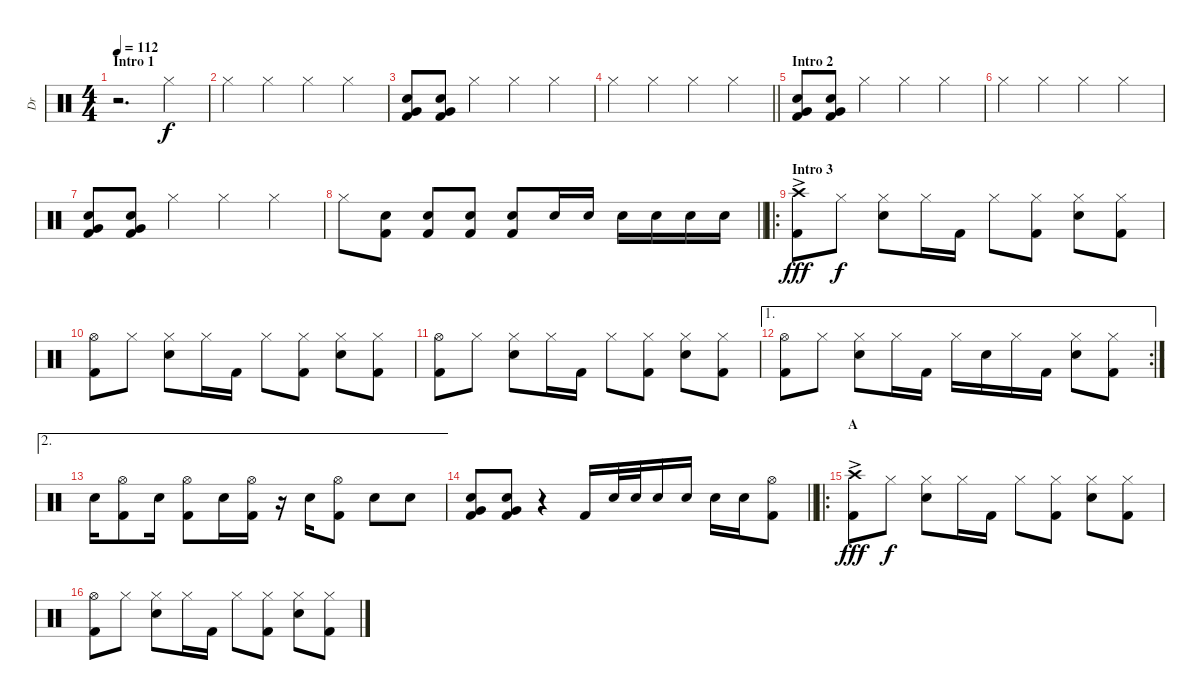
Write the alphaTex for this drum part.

\track ("Dr" "Dr") {instrument percussion}
\staff {score}
\articulation defaults
\ts (4 4)
\section ("" "Intro 1")
\tempo 112
\clef neutral
\ks c
r.2{d dy f} "Hi-Hat (closed)".4 |
"Hi-Hat (closed)".4 "Hi-Hat (closed)".4 "Hi-Hat (closed)".4 "Hi-Hat (closed)".4 |
("Electric Snare (hit)" "Very Low Tom (hit)" "Kick (hit) 2").8 ("Electric Snare (hit)" "Very Low Tom (hit)" "Kick (hit) 2").8 "Hi-Hat (closed)".4 "Hi-Hat (closed)".4 "Hi-Hat (closed)".4 |
\barLineRight lightlight "Hi-Hat (closed)".4 "Hi-Hat (closed)".4 "Hi-Hat (closed)".4 "Hi-Hat (closed)".4
|
\section ("" "Intro 2")
("Electric Snare (hit)" "Very Low Tom (hit)" "Kick (hit) 2").8 ("Electric Snare (hit)" "Very Low Tom (hit)" "Kick (hit) 2").8 "Hi-Hat (closed)".4 "Hi-Hat (closed)".4 "Hi-Hat (closed)".4 |
"Hi-Hat (closed)".4 "Hi-Hat (closed)".4 "Hi-Hat (closed)".4 "Hi-Hat (closed)".4 |
("Electric Snare (hit)" "Very Low Tom (hit)" "Kick (hit) 2").8 ("Electric Snare (hit)" "Very Low Tom (hit)" "Kick (hit) 2").8 "Hi-Hat (closed)".4 "Hi-Hat (closed)".4 "Hi-Hat (closed)".4 |
\barLineRight lightlight "Hi-Hat (closed)".8
("Electric Snare (hit)" "Kick (hit) 2").8 ("Electric Snare (hit)" "Kick (hit) 2").8 ("Electric Snare (hit)" "Kick (hit) 2").8 ("Electric Snare (hit)" "Kick (hit) 2").8 "Electric Snare (hit)".16 "Electric Snare (hit)".16 "Electric Snare (hit)".16 "Electric Snare (hit)".16 "Electric Snare (hit)".16 "Electric Snare (hit)".16 |
\ro
\section ("" "Intro 3")
("Crash high (hit)"{ac} "Kick (hit) 2"{ac}).8{dy fff} "Hi-Hat (closed)".8{dy f} ("Hi-Hat (closed)" "Electric Snare (hit)").8 "Hi-Hat (closed)".16 "Kick (hit) 2".16 "Hi-Hat (closed)".8 ("Hi-Hat (closed)" "Kick (hit) 2").8 ("Hi-Hat (closed)" "Electric Snare (hit)").8 ("Hi-Hat (closed)" "Kick (hit) 2").8 |
("Hi-Hat (open)" "Kick (hit) 2").8 "Hi-Hat (closed)".8 ("Hi-Hat (closed)" "Electric Snare (hit)").8 "Hi-Hat (closed)".16 "Kick (hit) 2".16 "Hi-Hat (closed)".8 ("Hi-Hat (closed)" "Kick (hit) 2").8 ("Hi-Hat (closed)" "Electric Snare (hit)").8 ("Hi-Hat (closed)" "Kick (hit) 2").8 |
("Hi-Hat (open)" "Kick (hit) 2").8 "Hi-Hat (closed)".8 ("Hi-Hat (closed)" "Electric Snare (hit)").8 "Hi-Hat (closed)".16 "Kick (hit) 2".16 "Hi-Hat (closed)".8 ("Hi-Hat (closed)" "Kick (hit) 2").8 ("Hi-Hat (closed)" "Electric Snare (hit)").8 ("Hi-Hat (closed)" "Kick (hit) 2").8 |
\ae 1
\rc 2
("Hi-Hat (open)" "Kick (hit) 2").8 "Hi-Hat (closed)".8 ("Hi-Hat (closed)" "Electric Snare (hit)").8 "Hi-Hat (closed)".16 "Kick (hit) 2".16 "Hi-Hat (closed)".16 "Electric Snare (hit)".16 "Hi-Hat (closed)".16 "Kick (hit) 2".16 ("Hi-Hat (closed)" "Electric Snare (hit)").8 ("Hi-Hat (closed)" "Kick (hit) 2").8 |
\ae 2 "Electric Snare (hit)".16
("Hi-Hat (open)" "Kick (hit) 2").8 "Electric Snare (hit)".16 ("Hi-Hat (open)" "Kick (hit) 2").8 "Electric Snare (hit)".16 ("Hi-Hat (open)" "Kick (hit) 2").16 r.16 "Electric Snare (hit)".16 ("Hi-Hat (open)" "Kick (hit) 2").8 "Electric Snare (hit)".8 "Electric Snare (hit)".8 |
\barLineRight lightlight
("Electric Snare (hit)" "Very Low Tom (hit)" "Kick (hit) 2").8 ("Electric Snare (hit)" "Very Low Tom (hit)" "Kick (hit) 2").8 r.4 "Kick (hit) 2".16 "Electric Snare (hit)".32 "Electric Snare (hit)".32 "Electric Snare (hit)".16 "Electric Snare (hit)".16 "Electric Snare (hit)".16 "Electric Snare (hit)".16 ("Hi-Hat (open)" "Kick (hit) 2").8 |
\ro
\section ("" "A")
("Crash high (hit)"{ac} "Kick (hit) 2"{ac}).8{dy fff} "Hi-Hat (closed)".8{dy f} ("Hi-Hat (closed)" "Electric Snare (hit)").8 "Hi-Hat (closed)".16 "Kick (hit) 2".16 "Hi-Hat (closed)".8 ("Hi-Hat (closed)" "Kick (hit) 2").8 ("Hi-Hat (closed)" "Electric Snare (hit)").8 ("Hi-Hat (closed)" "Kick (hit) 2").8 |
("Hi-Hat (open)" "Kick (hit) 2").8 "Hi-Hat (closed)".8 ("Hi-Hat (closed)" "Electric Snare (hit)").8 "Hi-Hat (closed)".16 "Kick (hit) 2".16 "Hi-Hat (closed)".8 ("Hi-Hat (closed)" "Kick (hit) 2").8 ("Hi-Hat (closed)" "Electric Snare (hit)").8 ("Hi-Hat (closed)" "Kick (hit) 2").8
